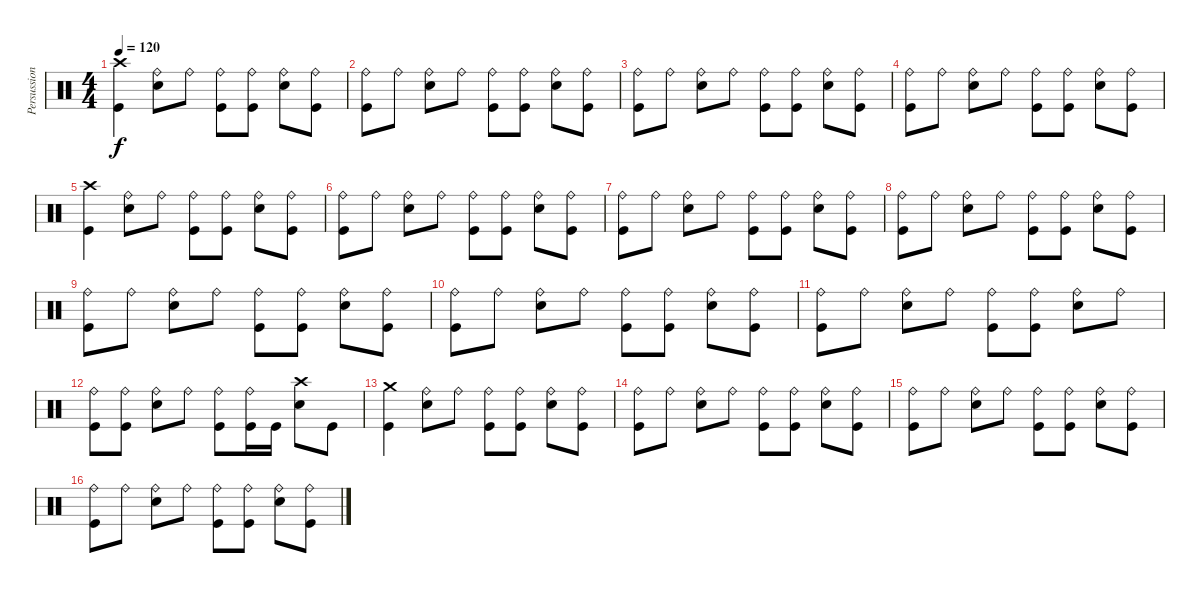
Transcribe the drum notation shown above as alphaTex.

\track ("Persussion" "Persussion") {instrument percussion}
\staff {score}
\articulation defaults
\ts (4 4)
\tempo 120
\clef neutral
\ks c
("Crash high (hit)" "Kick (hit)").4{dy f} ("Ride (bell)" "Snare (hit) 2").8 "Ride (bell)".8 ("Ride (bell)" "Kick (hit)").8 ("Ride (bell)" "Kick (hit)").8 ("Ride (bell)" "Snare (hit) 2").8 ("Ride (bell)" "Kick (hit)").8 |
("Ride (bell)" "Kick (hit)").8 "Ride (bell)".8 ("Ride (bell)" "Snare (hit) 2").8 "Ride (bell)".8 ("Ride (bell)" "Kick (hit)").8 ("Ride (bell)" "Kick (hit)").8 ("Ride (bell)" "Snare (hit) 2").8 ("Ride (bell)" "Kick (hit)").8 |
("Ride (bell)" "Kick (hit)").8 "Ride (bell)".8 ("Ride (bell)" "Snare (hit) 2").8 "Ride (bell)".8 ("Ride (bell)" "Kick (hit)").8 ("Ride (bell)" "Kick (hit)").8 ("Ride (bell)" "Snare (hit) 2").8 ("Ride (bell)" "Kick (hit)").8 |
("Ride (bell)" "Kick (hit)").8 "Ride (bell)".8 ("Ride (bell)" "Snare (hit) 2").8 "Ride (bell)".8 ("Ride (bell)" "Kick (hit)").8 ("Ride (bell)" "Kick (hit)").8 ("Ride (bell)" "Snare (hit) 2").8 ("Ride (bell)" "Kick (hit)").8 |
("Crash high (hit)" "Kick (hit)").4 ("Ride (bell)" "Snare (hit) 2").8 "Ride (bell)".8 ("Ride (bell)" "Kick (hit)").8 ("Ride (bell)" "Kick (hit)").8 ("Ride (bell)" "Snare (hit) 2").8 ("Ride (bell)" "Kick (hit)").8 |
("Ride (bell)" "Kick (hit)").8 "Ride (bell)".8 ("Ride (bell)" "Snare (hit) 2").8 "Ride (bell)".8 ("Ride (bell)" "Kick (hit)").8 ("Ride (bell)" "Kick (hit)").8 ("Ride (bell)" "Snare (hit) 2").8 ("Ride (bell)" "Kick (hit)").8 |
("Ride (bell)" "Kick (hit)").8 "Ride (bell)".8 ("Ride (bell)" "Snare (hit) 2").8 "Ride (bell)".8 ("Ride (bell)" "Kick (hit)").8 ("Ride (bell)" "Kick (hit)").8 ("Ride (bell)" "Snare (hit) 2").8 ("Ride (bell)" "Kick (hit)").8 |
("Ride (bell)" "Kick (hit)").8 "Ride (bell)".8 ("Ride (bell)" "Snare (hit) 2").8 "Ride (bell)".8 ("Ride (bell)" "Kick (hit)").8 ("Ride (bell)" "Kick (hit)").8 ("Ride (bell)" "Snare (hit) 2").8 ("Ride (bell)" "Kick (hit)").8 |
("Ride (bell)" "Kick (hit)").8 "Ride (bell)".8 ("Ride (bell)" "Snare (hit) 2").8 "Ride (bell)".8 ("Ride (bell)" "Kick (hit)").8 ("Ride (bell)" "Kick (hit)").8 ("Ride (bell)" "Snare (hit) 2").8 ("Ride (bell)" "Kick (hit)").8 |
("Ride (bell)" "Kick (hit)").8 "Ride (bell)".8 ("Ride (bell)" "Snare (hit) 2").8 "Ride (bell)".8 ("Ride (bell)" "Kick (hit)").8 ("Ride (bell)" "Kick (hit)").8 ("Ride (bell)" "Snare (hit) 2").8 ("Ride (bell)" "Kick (hit)").8 |
("Ride (bell)" "Kick (hit)").8 "Ride (bell)".8 ("Ride (bell)" "Snare (hit) 2").8 "Ride (bell)".8 ("Ride (bell)" "Kick (hit)").8 ("Ride (bell)" "Kick (hit)").8 ("Ride (bell)" "Snare (hit) 2").8 "Ride (bell)".8 |
("Ride (bell)" "Kick (hit)").8 ("Ride (bell)" "Kick (hit)").8 ("Ride (bell)" "Snare (hit) 2").8 "Ride (bell)".8 ("Ride (bell)" "Kick (hit)").8 ("Ride (bell)" "Kick (hit)").16 "Kick (hit)".16 ("Crash high (hit)" "Snare (hit) 2").8 "Kick (hit)".8 |
("Crash medium (hit)" "Kick (hit)").4 ("Ride (bell)" "Snare (hit) 2").8 "Ride (bell)".8 ("Ride (bell)" "Kick (hit)").8 ("Ride (bell)" "Kick (hit)").8 ("Ride (bell)" "Snare (hit) 2").8 ("Ride (bell)" "Kick (hit)").8 |
("Ride (bell)" "Kick (hit)").8 "Ride (bell)".8 ("Ride (bell)" "Snare (hit) 2").8 "Ride (bell)".8 ("Ride (bell)" "Kick (hit)").8 ("Ride (bell)" "Kick (hit)").8 ("Ride (bell)" "Snare (hit) 2").8 ("Ride (bell)" "Kick (hit)").8 |
("Ride (bell)" "Kick (hit)").8 "Ride (bell)".8 ("Ride (bell)" "Snare (hit) 2").8 "Ride (bell)".8 ("Ride (bell)" "Kick (hit)").8 ("Ride (bell)" "Kick (hit)").8 ("Ride (bell)" "Snare (hit) 2").8 ("Ride (bell)" "Kick (hit)").8 |
("Ride (bell)" "Kick (hit)").8 "Ride (bell)".8 ("Ride (bell)" "Snare (hit) 2").8 "Ride (bell)".8 ("Ride (bell)" "Kick (hit)").8 ("Ride (bell)" "Kick (hit)").8 ("Ride (bell)" "Snare (hit) 2").8 ("Ride (bell)" "Kick (hit)").8
